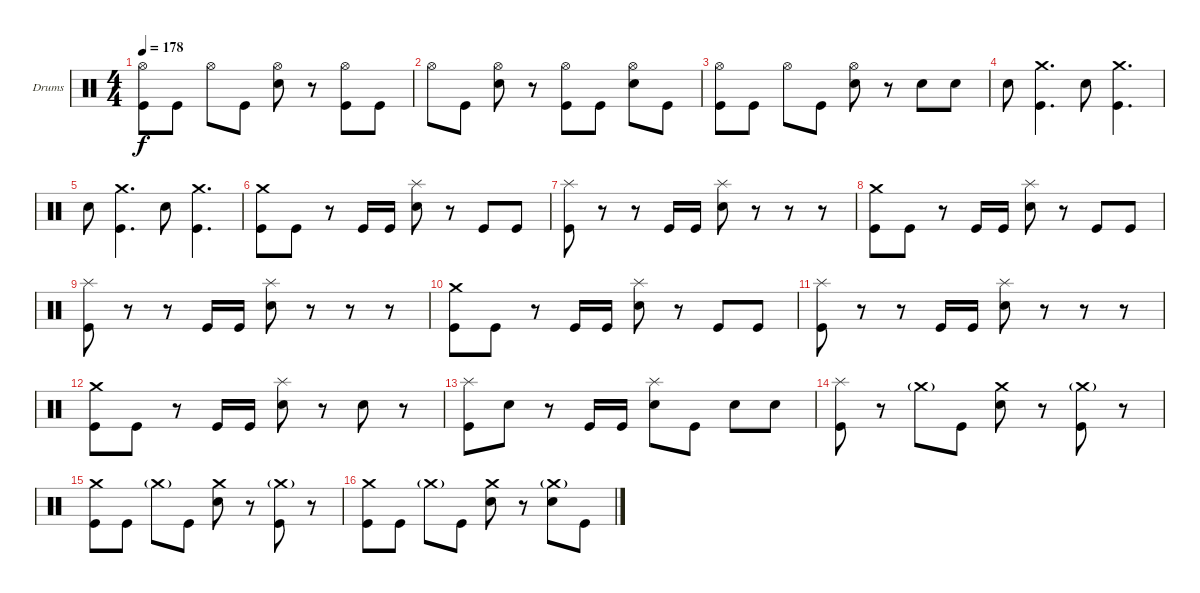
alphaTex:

\bracketExtendMode groupsimilarinstruments
\firstSystemTrackNameOrientation horizontal
\otherSystemsTrackNameOrientation horizontal
\track ("Drums" "Drums") {instrument percussion}
\staff {score}
\articulation defaults
\ts (4 4)
\tempo 178
\clef neutral
\ks c
("Hi-Hat (open)" "Kick (hit)").8{dy f} "Kick (hit)".8 "Hi-Hat (open)".8 "Kick (hit)".8 ("Hi-Hat (open)" "Snare (hit) 2").8 r.8 ("Hi-Hat (open)" "Kick (hit)").8 "Kick (hit)".8 |
"Hi-Hat (open)".8 "Kick (hit)".8 ("Hi-Hat (open)" "Snare (hit) 2").8 r.8 ("Hi-Hat (open)" "Kick (hit)").8 "Kick (hit)".8 ("Hi-Hat (open)" "Snare (hit) 2").8 "Kick (hit)".8 |
("Kick (hit)" "Hi-Hat (open)").8 "Kick (hit)".8 "Hi-Hat (open)".8 "Kick (hit)".8 ("Hi-Hat (open)" "Snare (hit) 2").8 r.8 "Snare (hit) 2".8 "Snare (hit) 2".8 |
"Snare (hit) 2".8 ("Kick (hit)" "Crash medium (hit)").4{d} "Snare (hit) 2".8 ("Kick (hit)" "Crash medium (hit)").4{d} |
"Snare (hit) 2".8 ("Kick (hit)" "Crash medium (hit)").4{d} "Snare (hit) 2".8 ("Kick (hit)" "Crash medium (hit)").4{d} |
("Crash medium (hit)" "Kick (hit)").8 "Kick (hit)".8 r.8 "Kick (hit)".16 "Kick (hit)".16 ("Splash (hit)" "Snare (hit) 2").8 r.8 "Kick (hit)".8 "Kick (hit)".8 |
("Splash (hit)" "Kick (hit)").8 r.8 r.8 "Kick (hit)".16 "Kick (hit)".16 ("Splash (hit)" "Snare (hit) 2").8 r.8 r.8 r.8 |
("Crash medium (hit)" "Kick (hit)").8 "Kick (hit)".8 r.8 "Kick (hit)".16 "Kick (hit)".16 ("Splash (hit)" "Snare (hit) 2").8 r.8 "Kick (hit)".8 "Kick (hit)".8 |
("Splash (hit)" "Kick (hit)").8 r.8 r.8 "Kick (hit)".16 "Kick (hit)".16 ("Splash (hit)" "Snare (hit) 2").8 r.8 r.8 r.8 |
("Crash medium (hit)" "Kick (hit)").8 "Kick (hit)".8 r.8 "Kick (hit)".16 "Kick (hit)".16 ("Splash (hit)" "Snare (hit) 2").8 r.8 "Kick (hit)".8 "Kick (hit)".8 |
("Splash (hit)" "Kick (hit)").8 r.8 r.8 "Kick (hit)".16 "Kick (hit)".16 ("Splash (hit)" "Snare (hit) 2").8 r.8 r.8 r.8 |
("Crash medium (hit)" "Kick (hit)").8 "Kick (hit)".8 r.8 "Kick (hit)".16 "Kick (hit)".16 ("Splash (hit)" "Snare (hit) 2").8 r.8 "Snare (hit) 2".8 r.8 |
("Splash (hit)" "Kick (hit)").8 "Snare (hit) 2".8 r.8 "Kick (hit)".16 "Kick (hit)".16 ("Splash (hit)" "Snare (hit) 2").8 "Kick (hit)".8 "Snare (hit) 2".8 "Snare (hit) 2".8 |
("Splash (hit)" "Kick (hit)").8 r.8 "Crash medium (hit)"{g}.8 "Kick (hit)".8 ("Snare (hit) 2" "Crash medium (hit)").8 r.8 ("Kick (hit)" "Crash medium (hit)"{g}).8 r.8 |
("Kick (hit)" "Crash medium (hit)").8 "Kick (hit)".8 "Crash medium (hit)"{g}.8 "Kick (hit)".8 ("Snare (hit) 2" "Crash medium (hit)").8 r.8 ("Kick (hit)" "Crash medium (hit)"{g}).8 r.8 |
("Kick (hit)" "Crash medium (hit)").8 "Kick (hit)".8 "Crash medium (hit)"{g}.8 "Kick (hit)".8 ("Snare (hit) 2" "Crash medium (hit)").8 r.8 ("Snare (hit) 2" "Crash medium (hit)"{g}).8 "Kick (hit)".8
